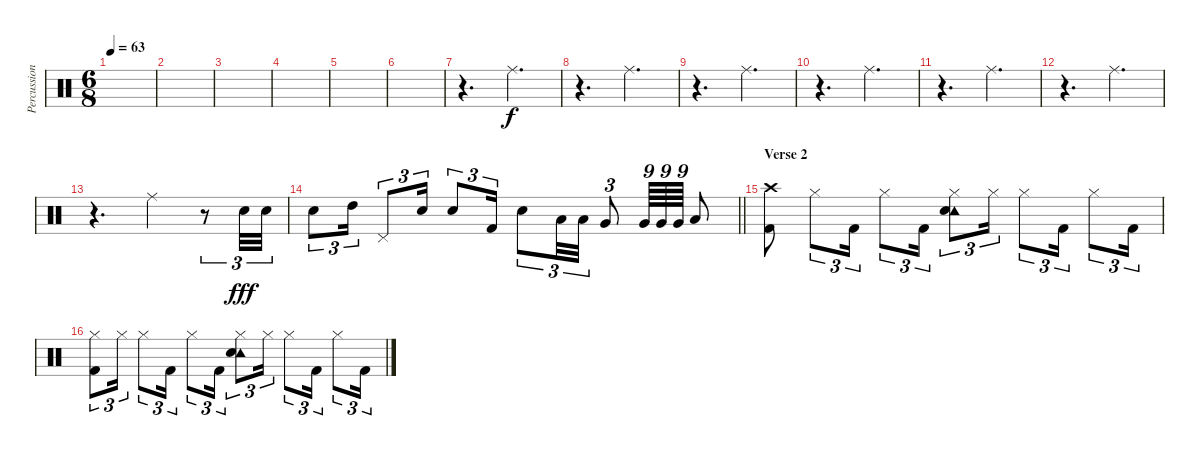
\track ("Percussion" "Percussion") {instrument percussion}
\staff {score}
\articulation defaults
\ts (6 8)
\tempo 63
\clef neutral
\ks c
|
|
|
|
|
|
r.4{d} "Ride (middle)".4{d} |
r.4{d} "Ride (middle)".4{d} |
r.4{d} "Ride (middle)".4{d} |
r.4{d} "Ride (middle)".4{d} |
r.4{d} "Ride (middle)".4{d} |
r.4{d} "Ride (middle)".4{d} |
r.4{d} "Ride (middle)".4 r.8{tu (3 2)} "Electric Snare (hit)".32{tu (3 2) dy fff} "Electric Snare (hit)".32{tu (3 2)} |
\barLineRight lightlight "Electric Snare (hit)".8{tu (3 2)} "High Tom (hit)".16{tu (3 2)} "Pedal Hi-Hat (hit)".8{tu (3 2)} "Electric Snare (hit)".16{tu (3 2)} "Electric Snare (hit)".8{tu (3 2)} "Kick (hit) 2".16{tu (3 2)} "Electric Snare (hit)".8{tu (3 2)} "Low Tom (hit)".32{tu (3 2)} "Low Tom (hit)".32{tu (3 2)} "Very Low Tom (hit)".8{tu (3 2)} "Very Low Tom (hit)".64{tu (9 8)} "Very Low Tom (hit)".64{tu (9 8)} "Very Low Tom (hit)".64{tu (9 8)} "Low Floor Tom (hit)".8
|
\section ("" "Verse 2")
("Crash high (hit)" "Kick (hit) 2").8 "Hi-Hat (closed)".8{tu (3 2)} "Kick (hit) 2".16{tu (3 2)} "Hi-Hat (closed)".8{tu (3 2)} "Kick (hit) 2".16{tu (3 2)} ("Hi-Hat (closed)" "Tambourine (hit)" "Electric Snare (hit)").8{tu (3 2)} "Hi-Hat (closed)".16{tu (3 2)} "Hi-Hat (closed)".8{tu (3 2)} "Kick (hit) 2".16{tu (3 2)} "Hi-Hat (closed)".8{tu (3 2)} "Kick (hit) 2".16{tu (3 2)} |
("Hi-Hat (closed)" "Kick (hit) 2").8{tu (3 2)} "Hi-Hat (closed)".16{tu (3 2)} "Hi-Hat (closed)".8{tu (3 2)} "Kick (hit) 2".16{tu (3 2)} "Hi-Hat (closed)".8{tu (3 2)} "Kick (hit) 2".16{tu (3 2)} ("Hi-Hat (closed)" "Tambourine (hit)" "Electric Snare (hit)").8{tu (3 2)} "Hi-Hat (closed)".16{tu (3 2)} "Hi-Hat (closed)".8{tu (3 2)} "Kick (hit) 2".16{tu (3 2)} "Hi-Hat (closed)".8{tu (3 2)} "Kick (hit) 2".16{tu (3 2)}
